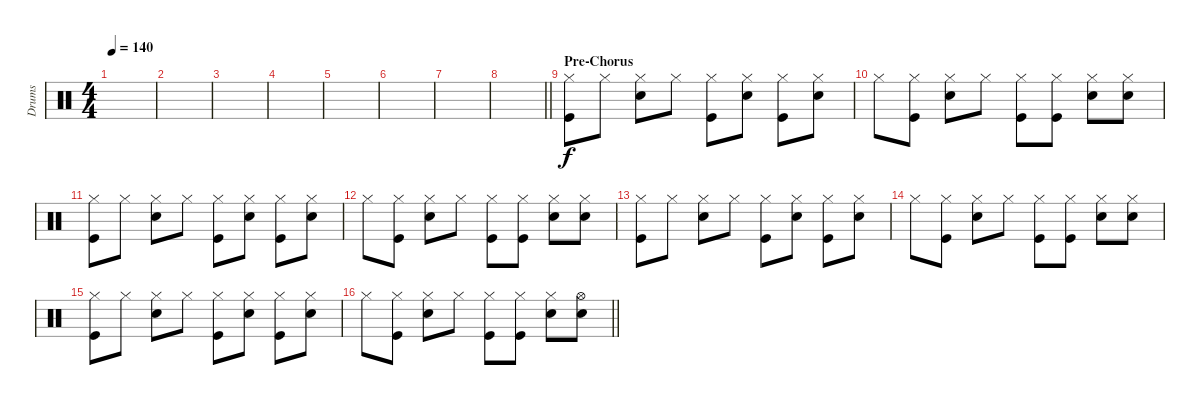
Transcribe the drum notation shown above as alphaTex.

\track ("Drums" "Drums") {instrument percussion}
\staff {score}
\articulation defaults
\ts (4 4)
\tempo 140
\clef neutral
\ks c
|
|
|
|
|
|
|
\barLineRight lightlight
|
\section ("" "Pre-Chorus")
("Hi-Hat (closed)" "Kick (hit)").8{volume 6} "Hi-Hat (closed)".8 ("Hi-Hat (closed)" "Snare (hit) 2").8 "Hi-Hat (closed)".8 ("Hi-Hat (closed)" "Kick (hit)").8 ("Hi-Hat (closed)" "Snare (hit) 2").8 ("Hi-Hat (closed)" "Kick (hit)").8 ("Hi-Hat (closed)" "Snare (hit) 2").8 |
"Hi-Hat (closed)".8 ("Hi-Hat (closed)" "Kick (hit)").8 ("Hi-Hat (closed)" "Snare (hit) 2").8 "Hi-Hat (closed)".8 ("Hi-Hat (closed)" "Kick (hit)").8 ("Hi-Hat (closed)" "Kick (hit)").8 ("Hi-Hat (closed)" "Snare (hit) 2").8 ("Hi-Hat (closed)" "Snare (hit) 2").8 |
("Hi-Hat (closed)" "Kick (hit)").8{volume 6} "Hi-Hat (closed)".8 ("Hi-Hat (closed)" "Snare (hit) 2").8 "Hi-Hat (closed)".8 ("Hi-Hat (closed)" "Kick (hit)").8 ("Hi-Hat (closed)" "Snare (hit) 2").8 ("Hi-Hat (closed)" "Kick (hit)").8 ("Hi-Hat (closed)" "Snare (hit) 2").8 |
"Hi-Hat (closed)".8 ("Hi-Hat (closed)" "Kick (hit)").8 ("Hi-Hat (closed)" "Snare (hit) 2").8 "Hi-Hat (closed)".8 ("Hi-Hat (closed)" "Kick (hit)").8 ("Hi-Hat (closed)" "Kick (hit)").8 ("Hi-Hat (closed)" "Snare (hit) 2").8 ("Hi-Hat (closed)" "Snare (hit) 2").8 |
("Hi-Hat (closed)" "Kick (hit)").8{volume 6} "Hi-Hat (closed)".8 ("Hi-Hat (closed)" "Snare (hit) 2").8 "Hi-Hat (closed)".8 ("Hi-Hat (closed)" "Kick (hit)").8 ("Hi-Hat (closed)" "Snare (hit) 2").8 ("Hi-Hat (closed)" "Kick (hit)").8 ("Hi-Hat (closed)" "Snare (hit) 2").8 |
"Hi-Hat (closed)".8 ("Hi-Hat (closed)" "Kick (hit)").8 ("Hi-Hat (closed)" "Snare (hit) 2").8 "Hi-Hat (closed)".8 ("Hi-Hat (closed)" "Kick (hit)").8 ("Hi-Hat (closed)" "Kick (hit)").8 ("Hi-Hat (closed)" "Snare (hit) 2").8 ("Hi-Hat (closed)" "Snare (hit) 2").8 |
("Hi-Hat (closed)" "Kick (hit)").8{volume 6} "Hi-Hat (closed)".8 ("Hi-Hat (closed)" "Snare (hit) 2").8 "Hi-Hat (closed)".8 ("Hi-Hat (closed)" "Kick (hit)").8 ("Hi-Hat (closed)" "Snare (hit) 2").8 ("Hi-Hat (closed)" "Kick (hit)").8 ("Hi-Hat (closed)" "Snare (hit) 2").8 |
\barLineRight lightlight "Hi-Hat (closed)".8
("Hi-Hat (closed)" "Kick (hit)").8 ("Hi-Hat (closed)" "Snare (hit) 2").8 "Hi-Hat (closed)".8 ("Hi-Hat (closed)" "Kick (hit)").8 ("Hi-Hat (closed)" "Kick (hit)").8 ("Hi-Hat (closed)" "Snare (hit) 2").8 ("Hi-Hat (open)" "Snare (hit) 2").8
